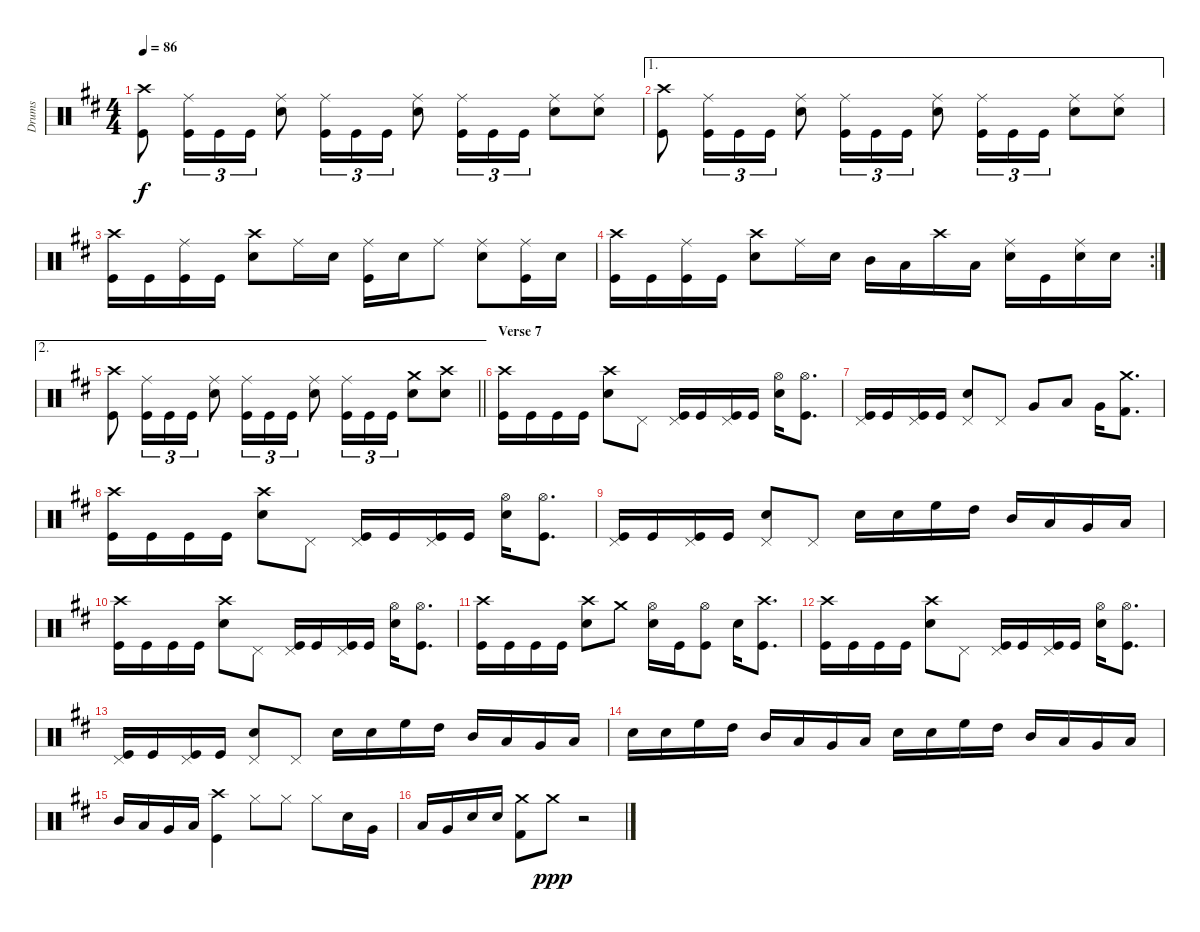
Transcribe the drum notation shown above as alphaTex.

\track ("Drums" "Drums") {instrument percussion}
\staff {score}
\articulation defaults
\ts (4 4)
\tempo 86
\clef neutral
\ks bminor
("Crash high (hit)" "Kick (hit)").8{dy f} ("Ride (middle)" "Kick (hit)").16{tu (3 2)} "Kick (hit)".16{tu (3 2)} "Kick (hit)".16{tu (3 2)} ("Ride (middle)" "Snare (hit) 2").8 ("Ride (middle)" "Kick (hit)").16{tu (3 2)} "Kick (hit)".16{tu (3 2)} "Kick (hit)".16{tu (3 2)} ("Ride (middle)" "Snare (hit) 2").8 ("Ride (middle)" "Kick (hit)").16{tu (3 2)} "Kick (hit)".16{tu (3 2)} "Kick (hit)".16{tu (3 2)} ("Ride (middle)" "Snare (hit) 2").8 ("Ride (middle)" "Snare (hit) 2").8 |
\ae 1
("Crash high (hit)" "Kick (hit)").8 ("Ride (middle)" "Kick (hit)").16{tu (3 2)} "Kick (hit)".16{tu (3 2)} "Kick (hit)".16{tu (3 2)} ("Ride (middle)" "Snare (hit) 2").8 ("Ride (middle)" "Kick (hit)").16{tu (3 2)} "Kick (hit)".16{tu (3 2)} "Kick (hit)".16{tu (3 2)} ("Ride (middle)" "Snare (hit) 2").8 ("Ride (middle)" "Kick (hit)").16{tu (3 2)} "Kick (hit)".16{tu (3 2)} "Kick (hit)".16{tu (3 2)} ("Ride (middle)" "Snare (hit) 2").8 ("Ride (middle)" "Snare (hit) 2").8 |
("Crash high (hit)" "Kick (hit)").16 "Kick (hit)".16 ("Ride (middle)" "Kick (hit)").16 "Kick (hit)".16 ("Crash high (hit)" "Snare (hit) 2").8 "Ride (middle)".16 "Snare (hit) 2".16 ("Ride (middle)" "Kick (hit)").16 "Snare (hit) 2".16 "Ride (middle)".8 ("Ride (middle)" "Snare (hit) 2").8 ("Ride (middle)" "Kick (hit)").16 "Snare (hit) 2".16 |
\rc 2
("Crash high (hit)" "Kick (hit)").16 "Kick (hit)".16 ("Ride (middle)" "Kick (hit)").16 "Kick (hit)".16 ("Crash high (hit)" "Snare (hit) 2").8 "Ride (middle)".16 "Snare (hit) 2".16 "Mid Tom (hit)".16 "Low Tom (hit)".16 "Crash high (hit)".16 "Low Floor Tom (hit)".16 ("Ride (middle)" "Snare (hit) 2").16 "Kick (hit)".16 ("Ride (middle)" "Snare (hit) 2").16 "Snare (hit) 2".16 |
\ae 2
\barLineRight lightlight
("Crash high (hit)" "Kick (hit)").8 ("Ride (middle)" "Kick (hit)").16{tu (3 2)} "Kick (hit)".16{tu (3 2)} "Kick (hit)".16{tu (3 2)} ("Ride (middle)" "Snare (hit) 2").8 ("Ride (middle)" "Kick (hit)").16{tu (3 2)} "Kick (hit)".16{tu (3 2)} "Kick (hit)".16{tu (3 2)} ("Ride (middle)" "Snare (hit) 2").8 ("Ride (middle)" "Kick (hit)").16{tu (3 2)} "Kick (hit)".16{tu (3 2)} "Kick (hit)".16{tu (3 2)} ("Crash medium (hit)" "Snare (hit) 2").8 ("Crash high (hit)" "Snare (hit) 2").8 |
\section ("" "Verse 7")
("Crash high (hit)" "Kick (hit)").16 "Kick (hit)".16 "Kick (hit)".16 "Kick (hit)".16 ("Crash high (hit)" "Snare (hit) 2").8 "Pedal Hi-Hat (hit)".8 ("Pedal Hi-Hat (hit)" "Kick (hit)").16 "Kick (hit)".16 ("Pedal Hi-Hat (hit)" "Kick (hit)").16 "Kick (hit)".16 ("Hi-Hat (open)" "Snare (hit) 2").16 ("Hi-Hat (open)" "Kick (hit)").8{d} |
("Pedal Hi-Hat (hit)" "Kick (hit)").16 "Kick (hit)".16 ("Pedal Hi-Hat (hit)" "Kick (hit)").16 "Kick (hit)".16 ("Pedal Hi-Hat (hit)" "Snare (hit) 2").8 "Pedal Hi-Hat (hit)".8 "Very Low Tom (hit)".8 "Low Tom (hit)".8 "Very Low Tom (hit)".16 ("Crash medium (hit)" "Kick (hit) 2").8{d} |
("Crash high (hit)" "Kick (hit)").16 "Kick (hit)".16 "Kick (hit)".16 "Kick (hit)".16 ("Crash high (hit)" "Snare (hit) 2").8 "Pedal Hi-Hat (hit)".8 ("Pedal Hi-Hat (hit)" "Kick (hit)").16 "Kick (hit)".16 ("Pedal Hi-Hat (hit)" "Kick (hit)").16 "Kick (hit)".16 ("Hi-Hat (open)" "Snare (hit) 2").16 ("Hi-Hat (open)" "Kick (hit)").8{d} |
("Pedal Hi-Hat (hit)" "Kick (hit)").16 "Kick (hit)".16 ("Pedal Hi-Hat (hit)" "Kick (hit)").16 "Kick (hit)".16 ("Pedal Hi-Hat (hit)" "Snare (hit) 2").8 "Pedal Hi-Hat (hit)".8 "Snare (hit) 2".16 "Snare (hit) 2".16 "High Floor Tom (hit)".16 "High Tom (hit)".16 "Mid Tom (hit)".16 "Low Tom (hit)".16 "Very Low Tom (hit)".16 "Low Floor Tom (hit)".16 |
("Crash high (hit)" "Kick (hit)").16 "Kick (hit)".16 "Kick (hit)".16 "Kick (hit)".16 ("Crash high (hit)" "Snare (hit) 2").8 "Pedal Hi-Hat (hit)".8 ("Pedal Hi-Hat (hit)" "Kick (hit)").16 "Kick (hit)".16 ("Pedal Hi-Hat (hit)" "Kick (hit)").16 "Kick (hit)".16 ("Hi-Hat (open)" "Snare (hit) 2").16 ("Hi-Hat (open)" "Kick (hit)").8{d} |
("Crash high (hit)" "Kick (hit)").16 "Kick (hit)".16 "Kick (hit)".16 "Kick (hit)".16 ("Crash high (hit)" "Snare (hit) 2").8 "Crash medium (hit)".8 ("Hi-Hat (open)" "Snare (hit) 2").16 "Kick (hit)".16 ("Hi-Hat (open)" "Kick (hit)").8 "Snare (hit) 2".16 ("Crash high (hit)" "Kick (hit)").8{d} |
("Crash high (hit)" "Kick (hit)").16 "Kick (hit)".16 "Kick (hit)".16 "Kick (hit)".16 ("Crash high (hit)" "Snare (hit) 2").8 "Pedal Hi-Hat (hit)".8 ("Pedal Hi-Hat (hit)" "Kick (hit)").16 "Kick (hit)".16 ("Pedal Hi-Hat (hit)" "Kick (hit)").16 "Kick (hit)".16 ("Hi-Hat (open)" "Snare (hit) 2").16 ("Hi-Hat (open)" "Kick (hit)").8{d} |
("Pedal Hi-Hat (hit)" "Kick (hit)").16 "Kick (hit)".16 ("Pedal Hi-Hat (hit)" "Kick (hit)").16 "Kick (hit)".16 ("Pedal Hi-Hat (hit)" "Snare (hit) 2").8 "Pedal Hi-Hat (hit)".8 "Snare (hit) 2".16 "Snare (hit) 2".16 "High Floor Tom (hit)".16 "High Tom (hit)".16 "Mid Tom (hit)".16 "Low Tom (hit)".16 "Very Low Tom (hit)".16 "Low Floor Tom (hit)".16 |
"Snare (hit) 2".16 "Snare (hit) 2".16 "High Floor Tom (hit)".16 "High Tom (hit)".16 "Mid Tom (hit)".16 "Low Tom (hit)".16 "Very Low Tom (hit)".16 "Low Floor Tom (hit)".16 "Snare (hit) 2".16 "Snare (hit) 2".16 "High Floor Tom (hit)".16 "High Tom (hit)".16 "Mid Tom (hit)".16 "Low Tom (hit)".16 "Very Low Tom (hit)".16 "Low Floor Tom (hit)".16 |
"Mid Tom (hit)".16 "Low Tom (hit)".16 "Very Low Tom (hit)".16 "Low Floor Tom (hit)".16 ("Crash high (hit)" "Kick (hit)").4 "Hi-Hat (closed)".8 "Hi-Hat (closed)".8 "Hi-Hat (closed)".8 "Snare (hit) 2".16 "Very Low Tom (hit)".16 |
"Low Tom (hit)".16 "Very Low Tom (hit)".16 "Snare (hit) 2".16 "Snare (hit) 2".16 ("Crash medium (hit)" "Kick (hit) 2").8 "Crash medium (hit)".8{dy ppp} r.2
